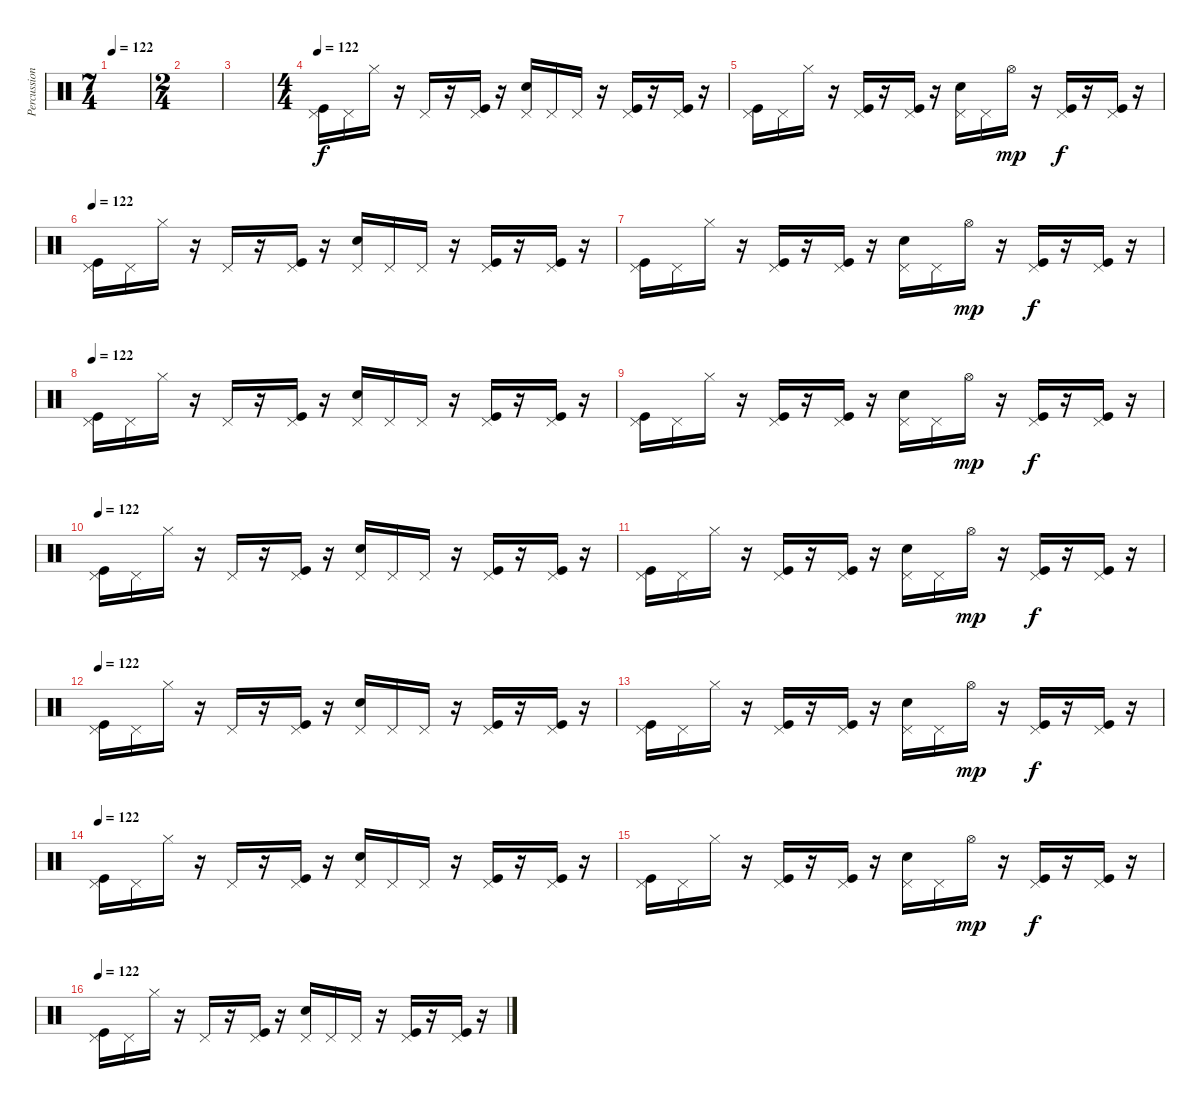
\track ("Percussions" "Percussion") {instrument percussion}
\staff {score}
\articulation defaults
\ts (7 4)
\tempo 122
\clef neutral
\ks c
|
\ts (2 4)
|
|
\ts (4 4)
\tempo 122
("Pedal Hi-Hat (hit)" "Kick (hit)").16 "Pedal Hi-Hat (hit)".16 "Hi-Hat (closed)".16 r.16 "Pedal Hi-Hat (hit)".16 r.16 ("Pedal Hi-Hat (hit)" "Kick (hit)").16 r.16 ("Pedal Hi-Hat (hit)" "Electric Snare (hit)").16 "Pedal Hi-Hat (hit)".16 "Pedal Hi-Hat (hit)".16 r.16 ("Pedal Hi-Hat (hit)" "Kick (hit)").16 r.16 ("Pedal Hi-Hat (hit)" "Kick (hit)").16 r.16 |
("Pedal Hi-Hat (hit)" "Kick (hit)").16 "Pedal Hi-Hat (hit)".16 "Hi-Hat (closed)".16 r.16 ("Pedal Hi-Hat (hit)" "Kick (hit)").16 r.16 ("Pedal Hi-Hat (hit)" "Kick (hit)").16 r.16 ("Pedal Hi-Hat (hit)" "Electric Snare (hit)").16 "Pedal Hi-Hat (hit)".16 "Hi-Hat (open)".16{dy mp} r.16 ("Pedal Hi-Hat (hit)" "Kick (hit)").16{dy f} r.16 ("Pedal Hi-Hat (hit)" "Kick (hit)").16 r.16 |
\tempo 122
("Pedal Hi-Hat (hit)" "Kick (hit)").16 "Pedal Hi-Hat (hit)".16 "Hi-Hat (closed)".16 r.16 "Pedal Hi-Hat (hit)".16 r.16 ("Pedal Hi-Hat (hit)" "Kick (hit)").16 r.16 ("Pedal Hi-Hat (hit)" "Electric Snare (hit)").16 "Pedal Hi-Hat (hit)".16 "Pedal Hi-Hat (hit)".16 r.16 ("Pedal Hi-Hat (hit)" "Kick (hit)").16 r.16 ("Pedal Hi-Hat (hit)" "Kick (hit)").16 r.16 |
("Pedal Hi-Hat (hit)" "Kick (hit)").16 "Pedal Hi-Hat (hit)".16 "Hi-Hat (closed)".16 r.16 ("Pedal Hi-Hat (hit)" "Kick (hit)").16 r.16 ("Pedal Hi-Hat (hit)" "Kick (hit)").16 r.16 ("Pedal Hi-Hat (hit)" "Electric Snare (hit)").16 "Pedal Hi-Hat (hit)".16 "Hi-Hat (open)".16{dy mp} r.16 ("Pedal Hi-Hat (hit)" "Kick (hit)").16{dy f} r.16 ("Pedal Hi-Hat (hit)" "Kick (hit)").16 r.16 |
\tempo 122
("Pedal Hi-Hat (hit)" "Kick (hit)").16 "Pedal Hi-Hat (hit)".16 "Hi-Hat (closed)".16 r.16 "Pedal Hi-Hat (hit)".16 r.16 ("Pedal Hi-Hat (hit)" "Kick (hit)").16 r.16 ("Pedal Hi-Hat (hit)" "Electric Snare (hit)").16 "Pedal Hi-Hat (hit)".16 "Pedal Hi-Hat (hit)".16 r.16 ("Pedal Hi-Hat (hit)" "Kick (hit)").16 r.16 ("Pedal Hi-Hat (hit)" "Kick (hit)").16 r.16 |
("Pedal Hi-Hat (hit)" "Kick (hit)").16 "Pedal Hi-Hat (hit)".16 "Hi-Hat (closed)".16 r.16 ("Pedal Hi-Hat (hit)" "Kick (hit)").16 r.16 ("Pedal Hi-Hat (hit)" "Kick (hit)").16 r.16 ("Pedal Hi-Hat (hit)" "Electric Snare (hit)").16 "Pedal Hi-Hat (hit)".16 "Hi-Hat (open)".16{dy mp} r.16 ("Pedal Hi-Hat (hit)" "Kick (hit)").16{dy f} r.16 ("Pedal Hi-Hat (hit)" "Kick (hit)").16 r.16 |
\tempo 122
("Pedal Hi-Hat (hit)" "Kick (hit)").16 "Pedal Hi-Hat (hit)".16 "Hi-Hat (closed)".16 r.16 "Pedal Hi-Hat (hit)".16 r.16 ("Pedal Hi-Hat (hit)" "Kick (hit)").16 r.16 ("Pedal Hi-Hat (hit)" "Electric Snare (hit)").16 "Pedal Hi-Hat (hit)".16 "Pedal Hi-Hat (hit)".16 r.16 ("Pedal Hi-Hat (hit)" "Kick (hit)").16 r.16 ("Pedal Hi-Hat (hit)" "Kick (hit)").16 r.16 |
("Pedal Hi-Hat (hit)" "Kick (hit)").16 "Pedal Hi-Hat (hit)".16 "Hi-Hat (closed)".16 r.16 ("Pedal Hi-Hat (hit)" "Kick (hit)").16 r.16 ("Pedal Hi-Hat (hit)" "Kick (hit)").16 r.16 ("Pedal Hi-Hat (hit)" "Electric Snare (hit)").16 "Pedal Hi-Hat (hit)".16 "Hi-Hat (open)".16{dy mp} r.16 ("Pedal Hi-Hat (hit)" "Kick (hit)").16{dy f} r.16 ("Pedal Hi-Hat (hit)" "Kick (hit)").16 r.16 |
\tempo 122
("Pedal Hi-Hat (hit)" "Kick (hit)").16 "Pedal Hi-Hat (hit)".16 "Hi-Hat (closed)".16 r.16 "Pedal Hi-Hat (hit)".16 r.16 ("Pedal Hi-Hat (hit)" "Kick (hit)").16 r.16 ("Pedal Hi-Hat (hit)" "Electric Snare (hit)").16 "Pedal Hi-Hat (hit)".16 "Pedal Hi-Hat (hit)".16 r.16 ("Pedal Hi-Hat (hit)" "Kick (hit)").16 r.16 ("Pedal Hi-Hat (hit)" "Kick (hit)").16 r.16 |
("Pedal Hi-Hat (hit)" "Kick (hit)").16 "Pedal Hi-Hat (hit)".16 "Hi-Hat (closed)".16 r.16 ("Pedal Hi-Hat (hit)" "Kick (hit)").16 r.16 ("Pedal Hi-Hat (hit)" "Kick (hit)").16 r.16 ("Pedal Hi-Hat (hit)" "Electric Snare (hit)").16 "Pedal Hi-Hat (hit)".16 "Hi-Hat (open)".16{dy mp} r.16 ("Pedal Hi-Hat (hit)" "Kick (hit)").16{dy f} r.16 ("Pedal Hi-Hat (hit)" "Kick (hit)").16 r.16 |
\tempo 122
("Pedal Hi-Hat (hit)" "Kick (hit)").16 "Pedal Hi-Hat (hit)".16 "Hi-Hat (closed)".16 r.16 "Pedal Hi-Hat (hit)".16 r.16 ("Pedal Hi-Hat (hit)" "Kick (hit)").16 r.16 ("Pedal Hi-Hat (hit)" "Electric Snare (hit)").16 "Pedal Hi-Hat (hit)".16 "Pedal Hi-Hat (hit)".16 r.16 ("Pedal Hi-Hat (hit)" "Kick (hit)").16 r.16 ("Pedal Hi-Hat (hit)" "Kick (hit)").16 r.16 |
("Pedal Hi-Hat (hit)" "Kick (hit)").16 "Pedal Hi-Hat (hit)".16 "Hi-Hat (closed)".16 r.16 ("Pedal Hi-Hat (hit)" "Kick (hit)").16 r.16 ("Pedal Hi-Hat (hit)" "Kick (hit)").16 r.16 ("Pedal Hi-Hat (hit)" "Electric Snare (hit)").16 "Pedal Hi-Hat (hit)".16 "Hi-Hat (open)".16{dy mp} r.16 ("Pedal Hi-Hat (hit)" "Kick (hit)").16{dy f} r.16 ("Pedal Hi-Hat (hit)" "Kick (hit)").16 r.16 |
\tempo 122
("Pedal Hi-Hat (hit)" "Kick (hit)").16 "Pedal Hi-Hat (hit)".16 "Hi-Hat (closed)".16 r.16 "Pedal Hi-Hat (hit)".16 r.16 ("Pedal Hi-Hat (hit)" "Kick (hit)").16 r.16 ("Pedal Hi-Hat (hit)" "Electric Snare (hit)").16 "Pedal Hi-Hat (hit)".16 "Pedal Hi-Hat (hit)".16 r.16 ("Pedal Hi-Hat (hit)" "Kick (hit)").16 r.16 ("Pedal Hi-Hat (hit)" "Kick (hit)").16 r.16
